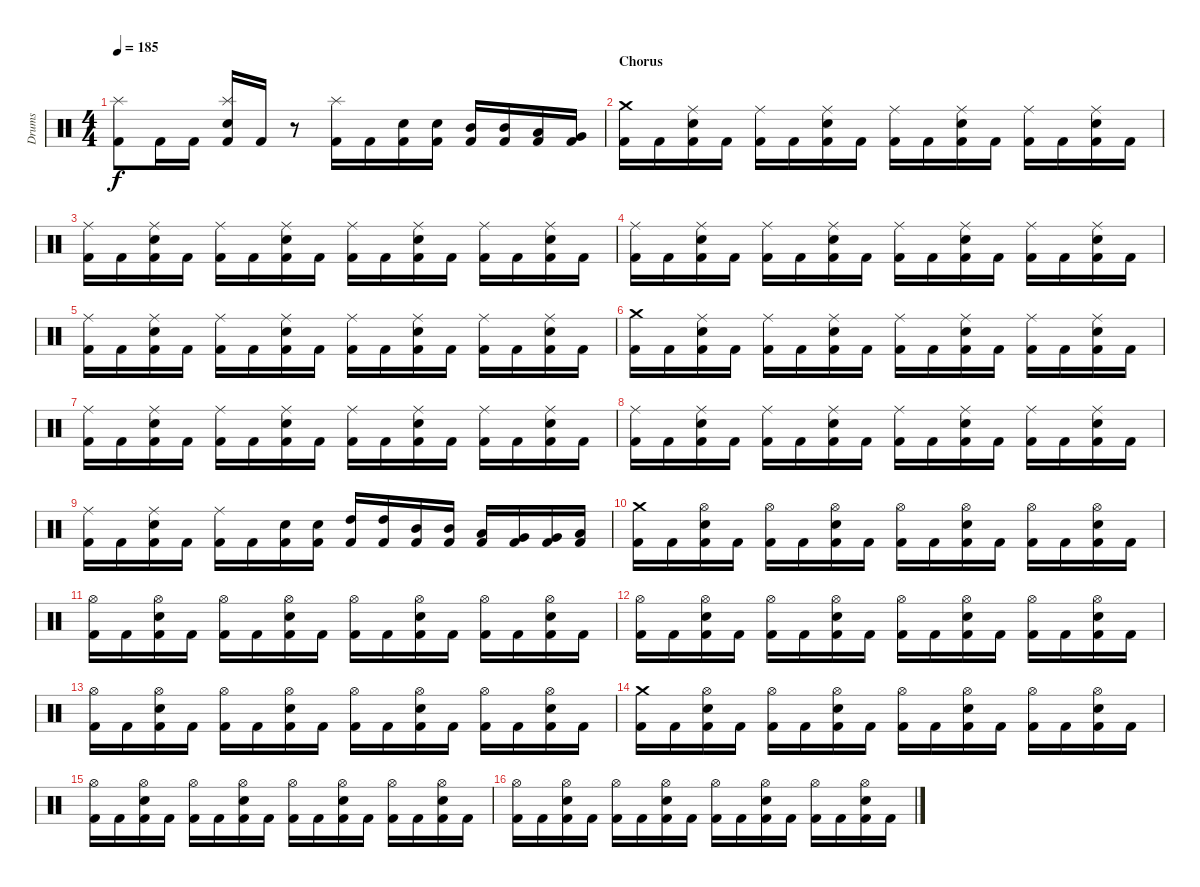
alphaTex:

\track ("Drums" "Drums") {instrument percussion}
\staff {score}
\articulation defaults
\ts (4 4)
\tempo 185
\clef neutral
\ks c
("Kick (hit) 2" "Splash (hit)").8{dy f} "Kick (hit) 2".16 "Kick (hit) 2".16 ("Kick (hit) 2" "Electric Snare (hit)" "Splash (hit)").16 "Kick (hit) 2".16 r.8 ("Kick (hit) 2" "Splash (hit)").16 "Kick (hit) 2".16 ("Kick (hit) 2" "Electric Snare (hit)").16 ("Kick (hit) 2" "Electric Snare (hit)").16 ("Kick (hit) 2" "Mid Tom (hit)").16 ("Kick (hit) 2" "Mid Tom (hit)").16 ("Kick (hit) 2" "Low Tom (hit)").16 ("Kick (hit) 2" "Very Low Tom (hit)").16 |
\section ("" "Chorus")
("Kick (hit) 2" "Crash medium (hit)").16 "Kick (hit) 2".16 ("Kick (hit) 2" "Electric Snare (hit)" "Ride (middle)").16 "Kick (hit) 2".16 ("Kick (hit) 2" "Ride (middle)").16 "Kick (hit) 2".16 ("Kick (hit) 2" "Electric Snare (hit)" "Ride (middle)").16 "Kick (hit) 2".16 ("Kick (hit) 2" "Ride (middle)").16 "Kick (hit) 2".16 ("Kick (hit) 2" "Electric Snare (hit)" "Ride (middle)").16 "Kick (hit) 2".16 ("Kick (hit) 2" "Ride (middle)").16 "Kick (hit) 2".16 ("Kick (hit) 2" "Electric Snare (hit)" "Ride (middle)").16 "Kick (hit) 2".16 |
("Kick (hit) 2" "Ride (middle)").16 "Kick (hit) 2".16 ("Kick (hit) 2" "Electric Snare (hit)" "Ride (middle)").16 "Kick (hit) 2".16 ("Kick (hit) 2" "Ride (middle)").16 "Kick (hit) 2".16 ("Kick (hit) 2" "Electric Snare (hit)" "Ride (middle)").16 "Kick (hit) 2".16 ("Kick (hit) 2" "Ride (middle)").16 "Kick (hit) 2".16 ("Kick (hit) 2" "Electric Snare (hit)" "Ride (middle)").16 "Kick (hit) 2".16 ("Kick (hit) 2" "Ride (middle)").16 "Kick (hit) 2".16 ("Kick (hit) 2" "Electric Snare (hit)" "Ride (middle)").16 "Kick (hit) 2".16 |
("Kick (hit) 2" "Ride (middle)").16 "Kick (hit) 2".16 ("Kick (hit) 2" "Electric Snare (hit)" "Ride (middle)").16 "Kick (hit) 2".16 ("Kick (hit) 2" "Ride (middle)").16 "Kick (hit) 2".16 ("Kick (hit) 2" "Electric Snare (hit)" "Ride (middle)").16 "Kick (hit) 2".16 ("Kick (hit) 2" "Ride (middle)").16 "Kick (hit) 2".16 ("Kick (hit) 2" "Electric Snare (hit)" "Ride (middle)").16 "Kick (hit) 2".16 ("Kick (hit) 2" "Ride (middle)").16 "Kick (hit) 2".16 ("Kick (hit) 2" "Electric Snare (hit)" "Ride (middle)").16 "Kick (hit) 2".16 |
("Kick (hit) 2" "Ride (middle)").16 "Kick (hit) 2".16 ("Kick (hit) 2" "Electric Snare (hit)" "Ride (middle)").16 "Kick (hit) 2".16 ("Kick (hit) 2" "Ride (middle)").16 "Kick (hit) 2".16 ("Kick (hit) 2" "Electric Snare (hit)" "Ride (middle)").16 "Kick (hit) 2".16 ("Kick (hit) 2" "Ride (middle)").16 "Kick (hit) 2".16 ("Kick (hit) 2" "Electric Snare (hit)" "Ride (middle)").16 "Kick (hit) 2".16 ("Kick (hit) 2" "Ride (middle)").16 "Kick (hit) 2".16 ("Kick (hit) 2" "Electric Snare (hit)" "Ride (middle)").16 "Kick (hit) 2".16 |
("Kick (hit) 2" "Crash medium (hit)").16 "Kick (hit) 2".16 ("Kick (hit) 2" "Electric Snare (hit)" "Ride (middle)").16 "Kick (hit) 2".16 ("Kick (hit) 2" "Ride (middle)").16 "Kick (hit) 2".16 ("Kick (hit) 2" "Electric Snare (hit)" "Ride (middle)").16 "Kick (hit) 2".16 ("Kick (hit) 2" "Ride (middle)").16 "Kick (hit) 2".16 ("Kick (hit) 2" "Electric Snare (hit)" "Ride (middle)").16 "Kick (hit) 2".16 ("Kick (hit) 2" "Ride (middle)").16 "Kick (hit) 2".16 ("Kick (hit) 2" "Electric Snare (hit)" "Ride (middle)").16 "Kick (hit) 2".16 |
("Kick (hit) 2" "Ride (middle)").16 "Kick (hit) 2".16 ("Kick (hit) 2" "Electric Snare (hit)" "Ride (middle)").16 "Kick (hit) 2".16 ("Kick (hit) 2" "Ride (middle)").16 "Kick (hit) 2".16 ("Kick (hit) 2" "Electric Snare (hit)" "Ride (middle)").16 "Kick (hit) 2".16 ("Kick (hit) 2" "Ride (middle)").16 "Kick (hit) 2".16 ("Kick (hit) 2" "Electric Snare (hit)" "Ride (middle)").16 "Kick (hit) 2".16 ("Kick (hit) 2" "Ride (middle)").16 "Kick (hit) 2".16 ("Kick (hit) 2" "Electric Snare (hit)" "Ride (middle)").16 "Kick (hit) 2".16 |
("Kick (hit) 2" "Ride (middle)").16 "Kick (hit) 2".16 ("Kick (hit) 2" "Electric Snare (hit)" "Ride (middle)").16 "Kick (hit) 2".16 ("Kick (hit) 2" "Ride (middle)").16 "Kick (hit) 2".16 ("Kick (hit) 2" "Electric Snare (hit)" "Ride (middle)").16 "Kick (hit) 2".16 ("Kick (hit) 2" "Ride (middle)").16 "Kick (hit) 2".16 ("Kick (hit) 2" "Electric Snare (hit)" "Ride (middle)").16 "Kick (hit) 2".16 ("Kick (hit) 2" "Ride (middle)").16 "Kick (hit) 2".16 ("Kick (hit) 2" "Electric Snare (hit)" "Ride (middle)").16 "Kick (hit) 2".16 |
("Kick (hit) 2" "Ride (middle)").16 "Kick (hit) 2".16 ("Kick (hit) 2" "Electric Snare (hit)" "Ride (middle)").16 "Kick (hit) 2".16 ("Kick (hit) 2" "Ride (middle)").16 "Kick (hit) 2".16 ("Kick (hit) 2" "Electric Snare (hit)").16 ("Kick (hit) 2" "Electric Snare (hit)").16 ("Kick (hit) 2" "High Tom (hit)").16 ("Kick (hit) 2" "High Tom (hit)").16 ("Kick (hit) 2" "Mid Tom (hit)").16 ("Kick (hit) 2" "Mid Tom (hit)").16 ("Kick (hit) 2" "Low Tom (hit)").16 ("Kick (hit) 2" "Very Low Tom (hit)").16 ("Kick (hit) 2" "Very Low Tom (hit)").16 ("Kick (hit) 2" "Low Floor Tom (hit)").16 |
\section ("" "")
("Kick (hit) 2" "Crash medium (hit)").16 "Kick (hit) 2".16 ("Kick (hit) 2" "Electric Snare (hit)" "Hi-Hat (open)").16 "Kick (hit) 2".16 ("Kick (hit) 2" "Hi-Hat (open)").16 "Kick (hit) 2".16 ("Kick (hit) 2" "Electric Snare (hit)" "Hi-Hat (open)").16 "Kick (hit) 2".16 ("Kick (hit) 2" "Hi-Hat (open)").16 "Kick (hit) 2".16 ("Kick (hit) 2" "Electric Snare (hit)" "Hi-Hat (open)").16 "Kick (hit) 2".16 ("Kick (hit) 2" "Hi-Hat (open)").16 "Kick (hit) 2".16 ("Kick (hit) 2" "Electric Snare (hit)" "Hi-Hat (open)").16 "Kick (hit) 2".16 |
("Kick (hit) 2" "Hi-Hat (open)").16 "Kick (hit) 2".16 ("Kick (hit) 2" "Electric Snare (hit)" "Hi-Hat (open)").16 "Kick (hit) 2".16 ("Kick (hit) 2" "Hi-Hat (open)").16 "Kick (hit) 2".16 ("Kick (hit) 2" "Electric Snare (hit)" "Hi-Hat (open)").16 "Kick (hit) 2".16 ("Kick (hit) 2" "Hi-Hat (open)").16 "Kick (hit) 2".16 ("Kick (hit) 2" "Electric Snare (hit)" "Hi-Hat (open)").16 "Kick (hit) 2".16 ("Kick (hit) 2" "Hi-Hat (open)").16 "Kick (hit) 2".16 ("Kick (hit) 2" "Electric Snare (hit)" "Hi-Hat (open)").16 "Kick (hit) 2".16 |
("Kick (hit) 2" "Hi-Hat (open)").16 "Kick (hit) 2".16 ("Kick (hit) 2" "Electric Snare (hit)" "Hi-Hat (open)").16 "Kick (hit) 2".16 ("Kick (hit) 2" "Hi-Hat (open)").16 "Kick (hit) 2".16 ("Kick (hit) 2" "Electric Snare (hit)" "Hi-Hat (open)").16 "Kick (hit) 2".16 ("Kick (hit) 2" "Hi-Hat (open)").16 "Kick (hit) 2".16 ("Kick (hit) 2" "Electric Snare (hit)" "Hi-Hat (open)").16 "Kick (hit) 2".16 ("Kick (hit) 2" "Hi-Hat (open)").16 "Kick (hit) 2".16 ("Kick (hit) 2" "Electric Snare (hit)" "Hi-Hat (open)").16 "Kick (hit) 2".16 |
("Kick (hit) 2" "Hi-Hat (open)").16 "Kick (hit) 2".16 ("Kick (hit) 2" "Electric Snare (hit)" "Hi-Hat (open)").16 "Kick (hit) 2".16 ("Kick (hit) 2" "Hi-Hat (open)").16 "Kick (hit) 2".16 ("Kick (hit) 2" "Electric Snare (hit)" "Hi-Hat (open)").16 "Kick (hit) 2".16 ("Kick (hit) 2" "Hi-Hat (open)").16 "Kick (hit) 2".16 ("Kick (hit) 2" "Electric Snare (hit)" "Hi-Hat (open)").16 "Kick (hit) 2".16 ("Kick (hit) 2" "Hi-Hat (open)").16 "Kick (hit) 2".16 ("Kick (hit) 2" "Electric Snare (hit)" "Hi-Hat (open)").16 "Kick (hit) 2".16 |
("Kick (hit) 2" "Crash medium (hit)").16 "Kick (hit) 2".16 ("Kick (hit) 2" "Electric Snare (hit)" "Hi-Hat (open)").16 "Kick (hit) 2".16 ("Kick (hit) 2" "Hi-Hat (open)").16 "Kick (hit) 2".16 ("Kick (hit) 2" "Electric Snare (hit)" "Hi-Hat (open)").16 "Kick (hit) 2".16 ("Kick (hit) 2" "Hi-Hat (open)").16 "Kick (hit) 2".16 ("Kick (hit) 2" "Electric Snare (hit)" "Hi-Hat (open)").16 "Kick (hit) 2".16 ("Kick (hit) 2" "Hi-Hat (open)").16 "Kick (hit) 2".16 ("Kick (hit) 2" "Electric Snare (hit)" "Hi-Hat (open)").16 "Kick (hit) 2".16 |
("Kick (hit) 2" "Hi-Hat (open)").16 "Kick (hit) 2".16 ("Kick (hit) 2" "Electric Snare (hit)" "Hi-Hat (open)").16 "Kick (hit) 2".16 ("Kick (hit) 2" "Hi-Hat (open)").16 "Kick (hit) 2".16 ("Kick (hit) 2" "Electric Snare (hit)" "Hi-Hat (open)").16 "Kick (hit) 2".16 ("Kick (hit) 2" "Hi-Hat (open)").16 "Kick (hit) 2".16 ("Kick (hit) 2" "Electric Snare (hit)" "Hi-Hat (open)").16 "Kick (hit) 2".16 ("Kick (hit) 2" "Hi-Hat (open)").16 "Kick (hit) 2".16 ("Kick (hit) 2" "Electric Snare (hit)" "Hi-Hat (open)").16 "Kick (hit) 2".16 |
("Kick (hit) 2" "Hi-Hat (open)").16 "Kick (hit) 2".16 ("Kick (hit) 2" "Electric Snare (hit)" "Hi-Hat (open)").16 "Kick (hit) 2".16 ("Kick (hit) 2" "Hi-Hat (open)").16 "Kick (hit) 2".16 ("Kick (hit) 2" "Electric Snare (hit)" "Hi-Hat (open)").16 "Kick (hit) 2".16 ("Kick (hit) 2" "Hi-Hat (open)").16 "Kick (hit) 2".16 ("Kick (hit) 2" "Electric Snare (hit)" "Hi-Hat (open)").16 "Kick (hit) 2".16 ("Kick (hit) 2" "Hi-Hat (open)").16 "Kick (hit) 2".16 ("Kick (hit) 2" "Electric Snare (hit)" "Hi-Hat (open)").16 "Kick (hit) 2".16
